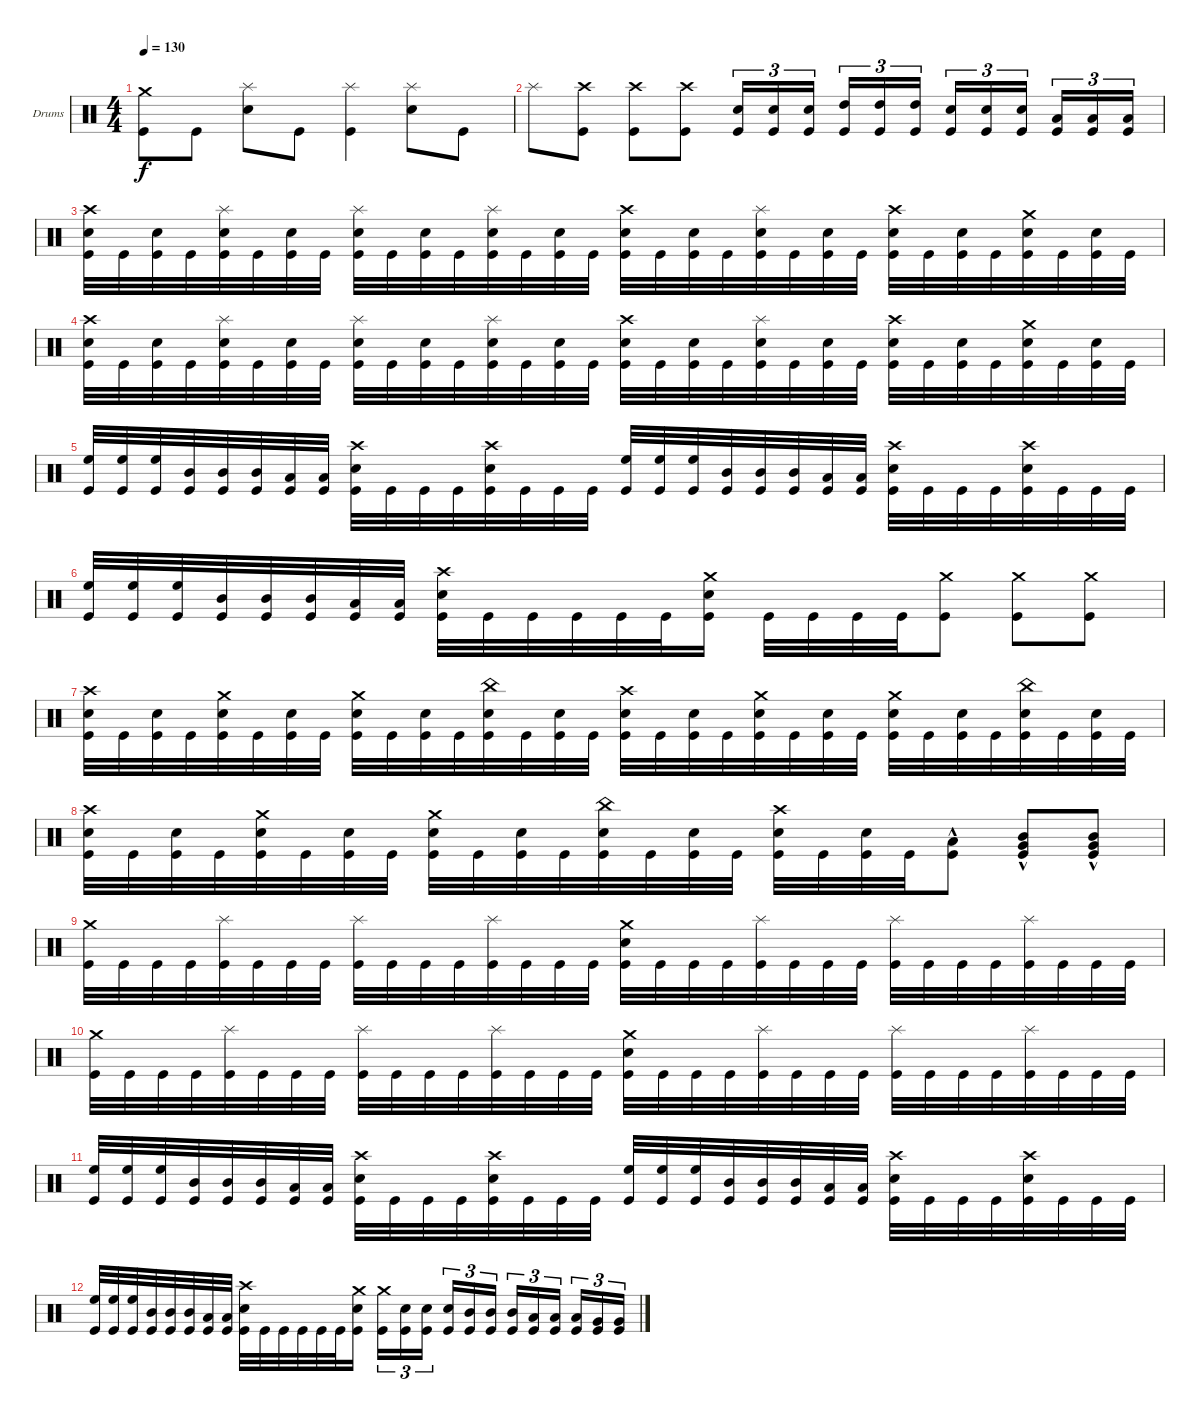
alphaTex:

\defaultSystemsLayout 4
\bracketExtendMode groupsimilarinstruments
\firstSystemTrackNameOrientation horizontal
\otherSystemsTrackNameOrientation horizontal
\track ("Drumkit" "Drums") {instrument percussion}
\staff {score}
\articulation defaults
\ts (4 4)
\tempo 130
\clef neutral
\scale
0.333333
\ks c
("Kick (hit)" "Crash medium (hit)").8{dy f} "Kick (hit)".8 ("Snare (hit) 2" "Splash (hit)").8 "Kick (hit)".8 ("Kick (hit)" "Splash (hit)").4 ("Snare (hit) 2" "Splash (hit)").8 "Kick (hit)".8 |
\scale
0.333333 "Splash (hit)".8 ("Kick (hit)" "Crash high (hit)").8 ("Kick (hit)" "Crash high (hit)").8 ("Kick (hit)" "Crash high (hit)").8 ("Kick (hit)" "Snare (hit) 2").16{tu (3 2)} ("Kick (hit)" "Snare (hit) 2").16{tu (3 2)} ("Kick (hit)" "Snare (hit) 2").16{tu (3 2)} ("Kick (hit)" "High Tom (hit)").16{tu (3 2)} ("Kick (hit)" "High Tom (hit)").16{tu (3 2)} ("Kick (hit)" "High Tom (hit)").16{tu (3 2)} ("Kick (hit)" "Snare (hit) 2").16{tu (3 2)} ("Kick (hit)" "Snare (hit) 2").16{tu (3 2)} ("Kick (hit)" "Snare (hit) 2").16{tu (3 2)} ("Kick (hit)" "Low Tom (hit)").16{tu (3 2)} ("Kick (hit)" "Low Tom (hit)").16{tu (3 2)} ("Kick (hit)" "Low Tom (hit)").16{tu (3 2)} |
\scale
0.333333 ("Snare (hit) 2" "Kick (hit)" "Crash high (hit)").32 "Kick (hit)".32 ("Snare (hit) 2" "Kick (hit)").32 "Kick (hit)".32 ("Snare (hit) 2" "Kick (hit)" "Splash (hit)").32 "Kick (hit)".32 ("Snare (hit) 2" "Kick (hit)").32 "Kick (hit)".32 ("Snare (hit) 2" "Kick (hit)" "Splash (hit)").32 "Kick (hit)".32 ("Snare (hit) 2" "Kick (hit)").32 "Kick (hit)".32 ("Snare (hit) 2" "Kick (hit)" "Splash (hit)").32 "Kick (hit)".32 ("Snare (hit) 2" "Kick (hit)").32 "Kick (hit)".32 ("Snare (hit) 2" "Kick (hit)" "Crash high (hit)").32 "Kick (hit)".32 ("Snare (hit) 2" "Kick (hit)").32 "Kick (hit)".32 ("Snare (hit) 2" "Kick (hit)" "Splash (hit)").32 "Kick (hit)".32 ("Snare (hit) 2" "Kick (hit)").32 "Kick (hit)".32 ("Snare (hit) 2" "Kick (hit)" "Crash high (hit)").32 "Kick (hit)".32 ("Snare (hit) 2" "Kick (hit)").32 "Kick (hit)".32 ("Snare (hit) 2" "Kick (hit)" "Crash medium (hit)").32 "Kick (hit)".32 ("Snare (hit) 2" "Kick (hit)").32 "Kick (hit)".32 |
\scale
0.333333 ("Snare (hit) 2" "Kick (hit)" "Crash high (hit)").32 "Kick (hit)".32 ("Snare (hit) 2" "Kick (hit)").32 "Kick (hit)".32 ("Snare (hit) 2" "Kick (hit)" "Splash (hit)").32 "Kick (hit)".32 ("Snare (hit) 2" "Kick (hit)").32 "Kick (hit)".32 ("Snare (hit) 2" "Kick (hit)" "Splash (hit)").32 "Kick (hit)".32 ("Snare (hit) 2" "Kick (hit)").32 "Kick (hit)".32 ("Snare (hit) 2" "Kick (hit)" "Splash (hit)").32 "Kick (hit)".32 ("Snare (hit) 2" "Kick (hit)").32 "Kick (hit)".32 ("Snare (hit) 2" "Kick (hit)" "Crash high (hit)").32 "Kick (hit)".32 ("Snare (hit) 2" "Kick (hit)").32 "Kick (hit)".32 ("Snare (hit) 2" "Kick (hit)" "Splash (hit)").32 "Kick (hit)".32 ("Snare (hit) 2" "Kick (hit)").32 "Kick (hit)".32 ("Snare (hit) 2" "Kick (hit)" "Crash high (hit)").32 "Kick (hit)".32 ("Snare (hit) 2" "Kick (hit)").32 "Kick (hit)".32 ("Snare (hit) 2" "Kick (hit)" "Crash medium (hit)").32 "Kick (hit)".32 ("Snare (hit) 2" "Kick (hit)").32 "Kick (hit)".32 |
\scale
0.333333 ("High Floor Tom (hit)" "Kick (hit)").32 ("Kick (hit)" "High Floor Tom (hit)").32 ("Kick (hit)" "High Floor Tom (hit)").32 ("Kick (hit)" "Mid Tom (hit)").32 ("Kick (hit)" "Mid Tom (hit)").32 ("Kick (hit)" "Mid Tom (hit)").32 ("Kick (hit)" "Low Tom (hit)").32 ("Kick (hit)" "Low Tom (hit)").32 ("Snare (hit) 2" "Kick (hit)" "Crash high (hit)").32 "Kick (hit)".32 "Kick (hit)".32 "Kick (hit)".32 ("Snare (hit) 2" "Kick (hit)" "Crash high (hit)").32 "Kick (hit)".32 "Kick (hit)".32 "Kick (hit)".32 ("High Floor Tom (hit)" "Kick (hit)").32 ("Kick (hit)" "High Floor Tom (hit)").32 ("Kick (hit)" "High Floor Tom (hit)").32 ("Kick (hit)" "Mid Tom (hit)").32 ("Kick (hit)" "Mid Tom (hit)").32 ("Kick (hit)" "Mid Tom (hit)").32 ("Kick (hit)" "Low Tom (hit)").32 ("Kick (hit)" "Low Tom (hit)").32 ("Snare (hit) 2" "Kick (hit)" "Crash high (hit)").32 "Kick (hit)".32 "Kick (hit)".32 "Kick (hit)".32 ("Snare (hit) 2" "Kick (hit)" "Crash high (hit)").32 "Kick (hit)".32 "Kick (hit)".32 "Kick (hit)".32 |
\scale
0.333333 ("High Floor Tom (hit)" "Kick (hit)").32 ("Kick (hit)" "High Floor Tom (hit)").32 ("Kick (hit)" "High Floor Tom (hit)").32 ("Kick (hit)" "Mid Tom (hit)").32 ("Kick (hit)" "Mid Tom (hit)").32 ("Kick (hit)" "Mid Tom (hit)").32 ("Kick (hit)" "Low Tom (hit)").32 ("Kick (hit)" "Low Tom (hit)").32 ("Snare (hit) 2" "Kick (hit)" "Crash high (hit)").32 "Kick (hit)".32 "Kick (hit)".32 "Kick (hit)".32 "Kick (hit)".32 "Kick (hit)".32 ("Snare (hit) 2" "Kick (hit)" "Crash medium (hit)").16 "Kick (hit)".32 "Kick (hit)".32 "Kick (hit)".32 "Kick (hit)".32 ("Kick (hit)" "Crash medium (hit)").8 ("Kick (hit)" "Crash medium (hit)").8 ("Kick (hit)" "Crash medium (hit)").8 |
\scale
0.333333 ("Snare (hit) 2" "Kick (hit)" "Crash high (hit)").32 "Kick (hit)".32 ("Snare (hit) 2" "Kick (hit)").32 "Kick (hit)".32 ("Snare (hit) 2" "Kick (hit)" "Crash medium (hit)").32 "Kick (hit)".32 ("Snare (hit) 2" "Kick (hit)").32 "Kick (hit)".32 ("Snare (hit) 2" "Kick (hit)" "Crash medium (hit)").32 "Kick (hit)".32 ("Snare (hit) 2" "Kick (hit)").32 "Kick (hit)".32 ("Snare (hit) 2" "Kick (hit)" "China (hit)").32 "Kick (hit)".32 ("Snare (hit) 2" "Kick (hit)").32 "Kick (hit)".32 ("Snare (hit) 2" "Kick (hit)" "Crash high (hit)").32 "Kick (hit)".32 ("Snare (hit) 2" "Kick (hit)").32 "Kick (hit)".32 ("Snare (hit) 2" "Kick (hit)" "Crash medium (hit)").32 "Kick (hit)".32 ("Snare (hit) 2" "Kick (hit)").32 "Kick (hit)".32 ("Snare (hit) 2" "Kick (hit)" "Crash medium (hit)").32 "Kick (hit)".32 ("Snare (hit) 2" "Kick (hit)").32 "Kick (hit)".32 ("Snare (hit) 2" "Kick (hit)" "China (hit)").32 "Kick (hit)".32 ("Snare (hit) 2" "Kick (hit)").32 "Kick (hit)".32 |
\scale
0.333333 ("Snare (hit) 2" "Kick (hit)" "Crash high (hit)").32 "Kick (hit)".32 ("Snare (hit) 2" "Kick (hit)").32 "Kick (hit)".32 ("Snare (hit) 2" "Kick (hit)" "Crash medium (hit)").32 "Kick (hit)".32 ("Snare (hit) 2" "Kick (hit)").32 "Kick (hit)".32 ("Snare (hit) 2" "Kick (hit)" "Crash medium (hit)").32 "Kick (hit)".32 ("Snare (hit) 2" "Kick (hit)").32 "Kick (hit)".32 ("Snare (hit) 2" "Kick (hit)" "China (hit)").32 "Kick (hit)".32 ("Snare (hit) 2" "Kick (hit)").32 "Kick (hit)".32 ("Snare (hit) 2" "Kick (hit)" "Crash high (hit)").32 "Kick (hit)".32 ("Snare (hit) 2" "Kick (hit)").32 "Kick (hit)".32 ("Kick (hit)"{hac} "Low Tom (hit)"{hac}).8 ("Kick (hit)"{hac} "Very Low Tom (hit)"{hac} "Mid Tom (hit)"{hac}).8 ("Kick (hit)"{hac} "Very Low Tom (hit)"{hac} "Mid Tom (hit)"{hac}).8 |
\scale
0.333333 ("Kick (hit)" "Crash medium (hit)").32 "Kick (hit)".32 "Kick (hit)".32 "Kick (hit)".32 ("Kick (hit)" "Splash (hit)").32 "Kick (hit)".32 "Kick (hit)".32 "Kick (hit)".32 ("Kick (hit)" "Splash (hit)").32 "Kick (hit)".32 "Kick (hit)".32 "Kick (hit)".32 ("Kick (hit)" "Splash (hit)").32 "Kick (hit)".32 "Kick (hit)".32 "Kick (hit)".32 ("Kick (hit)" "Snare (hit) 2" "Crash medium (hit)").32 "Kick (hit)".32 "Kick (hit)".32 "Kick (hit)".32 ("Kick (hit)" "Splash (hit)").32 "Kick (hit)".32 "Kick (hit)".32 "Kick (hit)".32 ("Kick (hit)" "Splash (hit)").32 "Kick (hit)".32 "Kick (hit)".32 "Kick (hit)".32 ("Kick (hit)" "Splash (hit)").32 "Kick (hit)".32 "Kick (hit)".32 "Kick (hit)".32 |
("Kick (hit)" "Crash medium (hit)").32 "Kick (hit)".32 "Kick (hit)".32 "Kick (hit)".32 ("Kick (hit)" "Splash (hit)").32 "Kick (hit)".32 "Kick (hit)".32 "Kick (hit)".32 ("Kick (hit)" "Splash (hit)").32 "Kick (hit)".32 "Kick (hit)".32 "Kick (hit)".32 ("Kick (hit)" "Splash (hit)").32 "Kick (hit)".32 "Kick (hit)".32 "Kick (hit)".32 ("Kick (hit)" "Snare (hit) 2" "Crash medium (hit)").32 "Kick (hit)".32 "Kick (hit)".32 "Kick (hit)".32 ("Kick (hit)" "Splash (hit)").32 "Kick (hit)".32 "Kick (hit)".32 "Kick (hit)".32 ("Kick (hit)" "Splash (hit)").32 "Kick (hit)".32 "Kick (hit)".32 "Kick (hit)".32 ("Kick (hit)" "Splash (hit)").32 "Kick (hit)".32 "Kick (hit)".32 "Kick (hit)".32 |
("High Floor Tom (hit)" "Kick (hit)").32 ("Kick (hit)" "High Floor Tom (hit)").32 ("Kick (hit)" "High Floor Tom (hit)").32 ("Kick (hit)" "Mid Tom (hit)").32 ("Kick (hit)" "Mid Tom (hit)").32 ("Kick (hit)" "Mid Tom (hit)").32 ("Kick (hit)" "Low Tom (hit)").32 ("Kick (hit)" "Low Tom (hit)").32 ("Snare (hit) 2" "Kick (hit)" "Crash high (hit)").32 "Kick (hit)".32 "Kick (hit)".32 "Kick (hit)".32 ("Snare (hit) 2" "Kick (hit)" "Crash high (hit)").32 "Kick (hit)".32 "Kick (hit)".32 "Kick (hit)".32 ("High Floor Tom (hit)" "Kick (hit)").32 ("Kick (hit)" "High Floor Tom (hit)").32 ("Kick (hit)" "High Floor Tom (hit)").32 ("Kick (hit)" "Mid Tom (hit)").32 ("Kick (hit)" "Mid Tom (hit)").32 ("Kick (hit)" "Mid Tom (hit)").32 ("Kick (hit)" "Low Tom (hit)").32 ("Kick (hit)" "Low Tom (hit)").32 ("Snare (hit) 2" "Kick (hit)" "Crash high (hit)").32 "Kick (hit)".32 "Kick (hit)".32 "Kick (hit)".32 ("Snare (hit) 2" "Kick (hit)" "Crash high (hit)").32 "Kick (hit)".32 "Kick (hit)".32 "Kick (hit)".32 |
("High Floor Tom (hit)" "Kick (hit)").32 ("Kick (hit)" "High Floor Tom (hit)").32 ("Kick (hit)" "High Floor Tom (hit)").32 ("Kick (hit)" "Mid Tom (hit)").32 ("Kick (hit)" "Mid Tom (hit)").32 ("Kick (hit)" "Mid Tom (hit)").32 ("Kick (hit)" "Low Tom (hit)").32 ("Kick (hit)" "Low Tom (hit)").32 ("Snare (hit) 2" "Kick (hit)" "Crash high (hit)").32 "Kick (hit)".32 "Kick (hit)".32 "Kick (hit)".32 "Kick (hit)".32 "Kick (hit)".32 ("Snare (hit) 2" "Kick (hit)" "Crash medium (hit)").16 ("Kick (hit)" "Crash medium (hit)").16{tu (3 2)} ("Kick (hit)" "Snare (hit) 2").16{tu (3 2)} ("Kick (hit)" "Snare (hit) 2").16{tu (3 2)} ("Kick (hit)" "Snare (hit) 2").16{tu (3 2)} ("Mid Tom (hit)" "Kick (hit)").16{tu (3 2)} ("Mid Tom (hit)" "Kick (hit)").16{tu (3 2)} ("Mid Tom (hit)" "Kick (hit)").16{tu (3 2)} ("Low Tom (hit)" "Kick (hit)").16{tu (3 2)} ("Low Tom (hit)" "Kick (hit)").16{tu (3 2)} ("Low Tom (hit)" "Kick (hit)").16{tu (3 2)} ("Very Low Tom (hit)" "Kick (hit)").16{tu (3 2)} ("Very Low Tom (hit)" "Kick (hit)").16{tu (3 2)}
